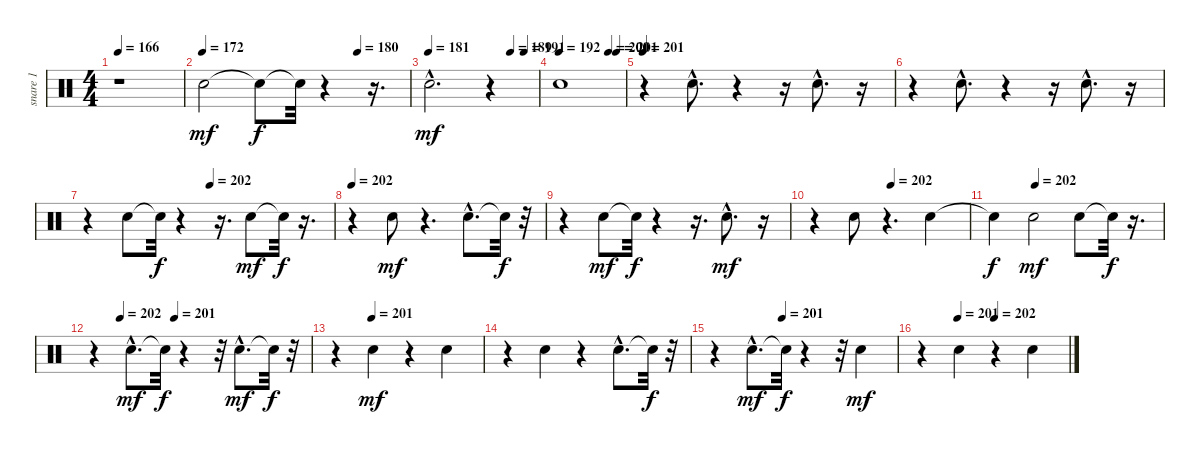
\track ("snare 1" "snare 1") {instrument percussion}
\staff {score}
\articulation defaults
\ts (4 4)
\tempo 166
\clef neutral
\ks c
r.1{dy mf} |
\tempo 172
\tempo (180 0.75)
"Snare (hit) 2".2 "Snare (hit)"{t}.8{dy f} "Snare (hit)"{t}.32 r.4 r.16{d} |
\tempo 181
\tempo (189 0.75)
\tempo (191 0.875)
"Snare (hit) 2"{hac}.2{d dy mf} r.4 |
\tempo 192
\tempo (200 0.75)
\tempo (201 0.875)
"Snare (hit) 2".1 |
\tempo 201
r.4 "Snare (hit) 2"{hac}.8{d} r.4 r.16 "Snare (hit) 2"{hac}.8{d} r.16 |
r.4 "Snare (hit) 2"{hac}.8{d} r.4 r.16 "Snare (hit) 2"{hac}.8{d} r.16 |
\tempo (202 0.5)
r.4 "Snare (hit) 2".8 "Snare (hit)"{t}.32{dy f} r.4 r.16{d} "Snare (hit) 2".8{dy mf} "Snare (hit)"{t}.32{dy f} r.16{d} |
\tempo 202
r.4 "Snare (hit) 2".8{dy mf} r.4{d} "Snare (hit) 2"{hac}.8{d} "Snare (hit)"{t}.32{dy f} r.32 |
r.4 "Snare (hit) 2".8{dy mf} "Snare (hit)"{t}.32{dy f} r.4 r.16{d} "Snare (hit) 2"{hac}.8{d dy mf} r.16 |
\tempo (202 0.5)
r.4 "Snare (hit) 2".8 r.4{d} "Snare (hit) 2".4 |
\tempo (202 0.25)
"Snare (hit)"{t}.4{dy f} "Snare (hit) 2".2{dy mf} "Snare (hit) 2".8 "Snare (hit)"{t}.32{dy f} r.16{d} |
\tempo (202 0.125)
\tempo (201 0.375)
r.4 "Snare (hit) 2"{hac}.8{d dy mf} "Snare (hit)"{t}.32{dy f} r.4 r.32 "Snare (hit) 2"{hac}.8{d dy mf} "Snare (hit)"{t}.32{dy f} r.32 |
\tempo (201 0.25)
r.4 "Snare (hit) 2".4{dy mf} r.4 "Snare (hit) 2".4 |
r.4 "Snare (hit) 2".4 r.4 "Snare (hit) 2"{hac}.8{d} "Snare (hit)"{t}.32{dy f} r.32 |
\tempo (201 0.375)
r.4 "Snare (hit) 2"{hac}.8{d dy mf} "Snare (hit)"{t}.32{dy f} r.4 r.32 "Snare (hit) 2".4{dy mf} |
\tempo (201 0.25)
\tempo (202 0.5)
r.4 "Snare (hit) 2".4 r.4 "Snare (hit) 2".4
